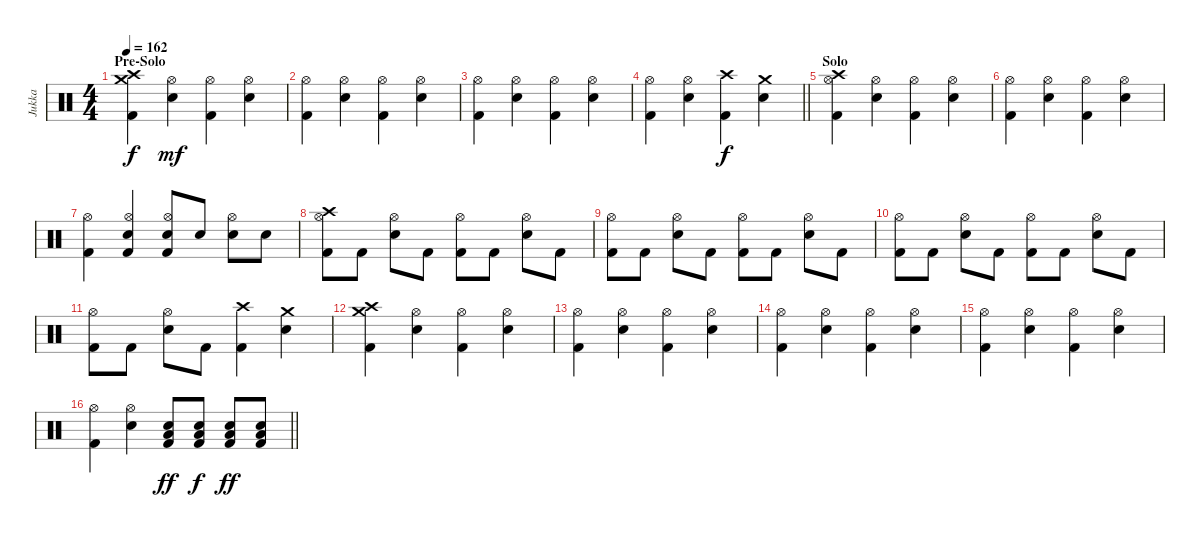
\track ("Jukka" "Jukka") {instrument percussion}
\staff {score}
\articulation defaults
\ts (4 4)
\section ("" "Pre-Solo")
\tempo 162
\clef neutral
\ks c
("Crash medium (hit)" "Crash high (hit)" "Kick (hit) 2").4{dy f} ("Hi-Hat (open)" "Electric Snare (hit)").4{dy mf} ("Hi-Hat (open)" "Kick (hit) 2").4 ("Hi-Hat (open)" "Electric Snare (hit)").4 |
("Hi-Hat (open)" "Kick (hit) 2").4 ("Hi-Hat (open)" "Electric Snare (hit)").4 ("Hi-Hat (open)" "Kick (hit) 2").4 ("Hi-Hat (open)" "Electric Snare (hit)").4 |
("Hi-Hat (open)" "Kick (hit) 2").4 ("Hi-Hat (open)" "Electric Snare (hit)").4 ("Hi-Hat (open)" "Kick (hit) 2").4 ("Hi-Hat (open)" "Electric Snare (hit)").4 |
\barLineRight lightlight
("Hi-Hat (open)" "Kick (hit) 2").4 ("Hi-Hat (open)" "Electric Snare (hit)").4 ("Crash high (hit)" "Kick (hit) 2").4{dy f} ("Crash medium (hit)" "Electric Snare (hit)").4 |
\section ("" "Solo")
("Crash high (hit)" "Hi-Hat (open)" "Kick (hit) 2").4 ("Hi-Hat (open)" "Electric Snare (hit)").4 ("Hi-Hat (open)" "Kick (hit) 2").4 ("Hi-Hat (open)" "Electric Snare (hit)").4 |
("Hi-Hat (open)" "Kick (hit) 2").4 ("Hi-Hat (open)" "Electric Snare (hit)").4 ("Hi-Hat (open)" "Kick (hit) 2").4 ("Hi-Hat (open)" "Electric Snare (hit)").4 |
("Hi-Hat (open)" "Kick (hit) 2").4 ("Hi-Hat (open)" "Electric Snare (hit)" "Kick (hit) 2").4 ("Hi-Hat (open)" "Electric Snare (hit)" "Kick (hit) 2").8 "Electric Snare (hit)".8 ("Hi-Hat (open)" "Electric Snare (hit)").8 "Electric Snare (hit)".8 |
("Crash high (hit)" "Hi-Hat (open)" "Kick (hit) 2").8 "Kick (hit) 2".8 ("Hi-Hat (open)" "Electric Snare (hit)").8 "Kick (hit) 2".8 ("Hi-Hat (open)" "Kick (hit) 2").8 "Kick (hit) 2".8 ("Hi-Hat (open)" "Electric Snare (hit)").8 "Kick (hit) 2".8 |
("Hi-Hat (open)" "Kick (hit) 2").8 "Kick (hit) 2".8 ("Hi-Hat (open)" "Electric Snare (hit)").8 "Kick (hit) 2".8 ("Hi-Hat (open)" "Kick (hit) 2").8 "Kick (hit) 2".8 ("Hi-Hat (open)" "Electric Snare (hit)").8 "Kick (hit) 2".8 |
("Hi-Hat (open)" "Kick (hit) 2").8 "Kick (hit) 2".8 ("Hi-Hat (open)" "Electric Snare (hit)").8 "Kick (hit) 2".8 ("Hi-Hat (open)" "Kick (hit) 2").8 "Kick (hit) 2".8 ("Hi-Hat (open)" "Electric Snare (hit)").8 "Kick (hit) 2".8 |
("Hi-Hat (open)" "Kick (hit) 2").8 "Kick (hit) 2".8 ("Hi-Hat (open)" "Electric Snare (hit)").8 "Kick (hit) 2".8 ("Crash high (hit)" "Kick (hit) 2").4 ("Crash medium (hit)" "Electric Snare (hit)").4 |
("Crash medium (hit)" "Crash high (hit)" "Kick (hit) 2").4 ("Hi-Hat (open)" "Electric Snare (hit)").4 ("Hi-Hat (open)" "Kick (hit) 2").4 ("Hi-Hat (open)" "Electric Snare (hit)").4 |
("Hi-Hat (open)" "Kick (hit) 2").4 ("Hi-Hat (open)" "Electric Snare (hit)").4 ("Hi-Hat (open)" "Kick (hit) 2").4 ("Hi-Hat (open)" "Electric Snare (hit)").4 |
("Hi-Hat (open)" "Kick (hit) 2").4 ("Hi-Hat (open)" "Electric Snare (hit)").4 ("Hi-Hat (open)" "Kick (hit) 2").4 ("Hi-Hat (open)" "Electric Snare (hit)").4 |
("Hi-Hat (open)" "Kick (hit) 2").4 ("Hi-Hat (open)" "Electric Snare (hit)").4 ("Hi-Hat (open)" "Kick (hit) 2").4 ("Hi-Hat (open)" "Electric Snare (hit)").4 |
\barLineRight lightlight
("Hi-Hat (open)" "Kick (hit) 2").4 ("Hi-Hat (open)" "Electric Snare (hit)").4 ("Low Floor Tom (hit)" "Electric Snare (hit)" "Kick (hit) 2").8{dy ff} ("Low Floor Tom (hit)" "Electric Snare (hit)" "Kick (hit) 2").8{dy f} ("Low Floor Tom (hit)" "Electric Snare (hit)" "Kick (hit) 2").8{dy ff} ("Low Floor Tom (hit)" "Electric Snare (hit)" "Kick (hit) 2").8
